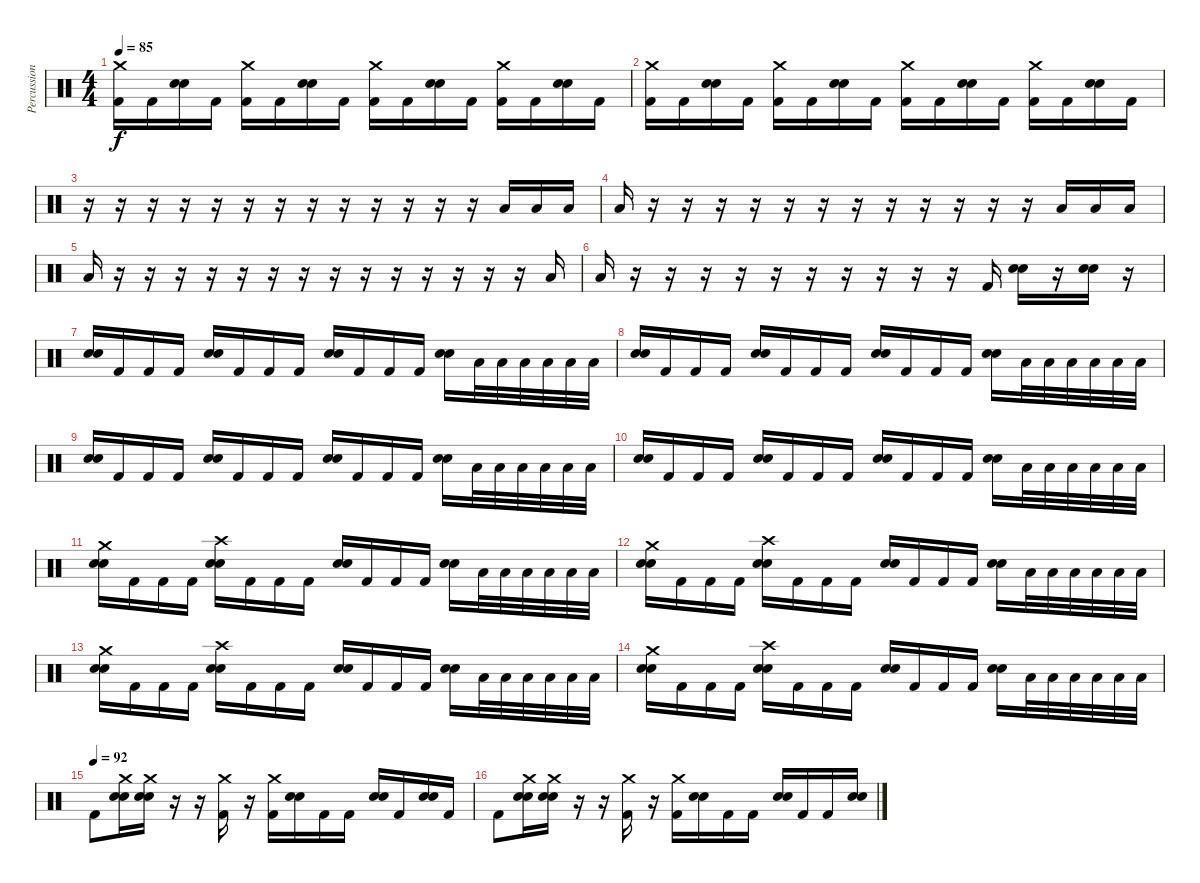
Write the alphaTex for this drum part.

\track ("Percussion" "Percussion") {instrument percussion}
\staff {score}
\articulation defaults
\ts (4 4)
\tempo 85
\clef neutral
\ks c
("Crash medium (hit)" "Kick (hit) 2").16{dy f} "Kick (hit) 2".16 ("Electric Snare (hit)" "Electric Snare (hit)").16 "Kick (hit) 2".16 ("Crash medium (hit)" "Kick (hit) 2").16 "Kick (hit) 2".16 ("Electric Snare (hit)" "Electric Snare (hit)").16 "Kick (hit) 2".16 ("Crash medium (hit)" "Kick (hit) 2").16 "Kick (hit) 2".16 ("Electric Snare (hit)" "Electric Snare (hit)").16 "Kick (hit) 2".16 ("Crash medium (hit)" "Kick (hit) 2").16 "Kick (hit) 2".16 ("Electric Snare (hit)" "Electric Snare (hit)").16 "Kick (hit) 2".16 |
("Crash medium (hit)" "Kick (hit) 2").16 "Kick (hit) 2".16 ("Electric Snare (hit)" "Electric Snare (hit)").16 "Kick (hit) 2".16 ("Crash medium (hit)" "Kick (hit) 2").16 "Kick (hit) 2".16 ("Electric Snare (hit)" "Electric Snare (hit)").16 "Kick (hit) 2".16 ("Crash medium (hit)" "Kick (hit) 2").16 "Kick (hit) 2".16 ("Electric Snare (hit)" "Electric Snare (hit)").16 "Kick (hit) 2".16 ("Crash medium (hit)" "Kick (hit) 2").16 "Kick (hit) 2".16 ("Electric Snare (hit)" "Electric Snare (hit)").16 "Kick (hit) 2".16 |
r.16 r.16 r.16 r.16 r.16 r.16 r.16 r.16 r.16 r.16 r.16 r.16 r.16 "Low Tom (hit)".16 "Low Tom (hit)".16 "Low Tom (hit)".16 |
"Low Tom (hit)".16 r.16 r.16 r.16 r.16 r.16 r.16 r.16 r.16 r.16 r.16 r.16 r.16 "Low Tom (hit)".16 "Low Tom (hit)".16 "Low Tom (hit)".16 |
"Low Tom (hit)".16 r.16 r.16 r.16 r.16 r.16 r.16 r.16 r.16 r.16 r.16 r.16 r.16 r.16 r.16 "Low Tom (hit)".16 |
"Low Tom (hit)".16 r.16 r.16 r.16 r.16 r.16 r.16 r.16 r.16 r.16 r.16 "Kick (hit) 2".16 ("Electric Snare (hit)" "Electric Snare (hit)").16 r.16 ("Electric Snare (hit)" "Electric Snare (hit)").16 r.16 |
("Electric Snare (hit)" "Electric Snare (hit)").16 "Kick (hit) 2".16 "Kick (hit) 2".16 "Kick (hit) 2".16 ("Electric Snare (hit)" "Electric Snare (hit)").16 "Kick (hit) 2".16 "Kick (hit) 2".16 "Kick (hit) 2".16 ("Electric Snare (hit)" "Electric Snare (hit)").16 "Kick (hit) 2".16 "Kick (hit) 2".16 "Kick (hit) 2".16 ("Electric Snare (hit)" "Electric Snare (hit)").16 "Low Tom (hit)".32 "Low Tom (hit)".32 "Low Tom (hit)".32 "Low Tom (hit)".32 "Low Tom (hit)".32 "Low Tom (hit)".32 |
("Electric Snare (hit)" "Electric Snare (hit)").16 "Kick (hit) 2".16 "Kick (hit) 2".16 "Kick (hit) 2".16 ("Electric Snare (hit)" "Electric Snare (hit)").16 "Kick (hit) 2".16 "Kick (hit) 2".16 "Kick (hit) 2".16 ("Electric Snare (hit)" "Electric Snare (hit)").16 "Kick (hit) 2".16 "Kick (hit) 2".16 "Kick (hit) 2".16 ("Electric Snare (hit)" "Electric Snare (hit)").16 "Low Tom (hit)".32 "Low Tom (hit)".32 "Low Tom (hit)".32 "Low Tom (hit)".32 "Low Tom (hit)".32 "Low Tom (hit)".32 |
("Electric Snare (hit)" "Electric Snare (hit)").16 "Kick (hit) 2".16 "Kick (hit) 2".16 "Kick (hit) 2".16 ("Electric Snare (hit)" "Electric Snare (hit)").16 "Kick (hit) 2".16 "Kick (hit) 2".16 "Kick (hit) 2".16 ("Electric Snare (hit)" "Electric Snare (hit)").16 "Kick (hit) 2".16 "Kick (hit) 2".16 "Kick (hit) 2".16 ("Electric Snare (hit)" "Electric Snare (hit)").16 "Low Tom (hit)".32 "Low Tom (hit)".32 "Low Tom (hit)".32 "Low Tom (hit)".32 "Low Tom (hit)".32 "Low Tom (hit)".32 |
("Electric Snare (hit)" "Electric Snare (hit)").16 "Kick (hit) 2".16 "Kick (hit) 2".16 "Kick (hit) 2".16 ("Electric Snare (hit)" "Electric Snare (hit)").16 "Kick (hit) 2".16 "Kick (hit) 2".16 "Kick (hit) 2".16 ("Electric Snare (hit)" "Electric Snare (hit)").16 "Kick (hit) 2".16 "Kick (hit) 2".16 "Kick (hit) 2".16 ("Electric Snare (hit)" "Electric Snare (hit)").16 "Low Tom (hit)".32 "Low Tom (hit)".32 "Low Tom (hit)".32 "Low Tom (hit)".32 "Low Tom (hit)".32 "Low Tom (hit)".32 |
("Crash medium (hit)" "Electric Snare (hit)" "Electric Snare (hit)").16 "Kick (hit) 2".16 "Kick (hit) 2".16 "Kick (hit) 2".16 ("Crash high (hit)" "Electric Snare (hit)" "Electric Snare (hit)").16 "Kick (hit) 2".16 "Kick (hit) 2".16 "Kick (hit) 2".16 ("Electric Snare (hit)" "Electric Snare (hit)").16 "Kick (hit) 2".16 "Kick (hit) 2".16 "Kick (hit) 2".16 ("Electric Snare (hit)" "Electric Snare (hit)").16 "Low Tom (hit)".32 "Low Tom (hit)".32 "Low Tom (hit)".32 "Low Tom (hit)".32 "Low Tom (hit)".32 "Low Tom (hit)".32 |
("Crash medium (hit)" "Electric Snare (hit)" "Electric Snare (hit)").16 "Kick (hit) 2".16 "Kick (hit) 2".16 "Kick (hit) 2".16 ("Crash high (hit)" "Electric Snare (hit)" "Electric Snare (hit)").16 "Kick (hit) 2".16 "Kick (hit) 2".16 "Kick (hit) 2".16 ("Electric Snare (hit)" "Electric Snare (hit)").16 "Kick (hit) 2".16 "Kick (hit) 2".16 "Kick (hit) 2".16 ("Electric Snare (hit)" "Electric Snare (hit)").16 "Low Tom (hit)".32 "Low Tom (hit)".32 "Low Tom (hit)".32 "Low Tom (hit)".32 "Low Tom (hit)".32 "Low Tom (hit)".32 |
("Crash medium (hit)" "Electric Snare (hit)" "Electric Snare (hit)").16 "Kick (hit) 2".16 "Kick (hit) 2".16 "Kick (hit) 2".16 ("Crash high (hit)" "Electric Snare (hit)" "Electric Snare (hit)").16 "Kick (hit) 2".16 "Kick (hit) 2".16 "Kick (hit) 2".16 ("Electric Snare (hit)" "Electric Snare (hit)").16 "Kick (hit) 2".16 "Kick (hit) 2".16 "Kick (hit) 2".16 ("Electric Snare (hit)" "Electric Snare (hit)").16 "Low Tom (hit)".32 "Low Tom (hit)".32 "Low Tom (hit)".32 "Low Tom (hit)".32 "Low Tom (hit)".32 "Low Tom (hit)".32 |
("Crash medium (hit)" "Electric Snare (hit)" "Electric Snare (hit)").16 "Kick (hit) 2".16 "Kick (hit) 2".16 "Kick (hit) 2".16 ("Crash high (hit)" "Electric Snare (hit)" "Electric Snare (hit)").16 "Kick (hit) 2".16 "Kick (hit) 2".16 "Kick (hit) 2".16 ("Electric Snare (hit)" "Electric Snare (hit)").16 "Kick (hit) 2".16 "Kick (hit) 2".16 "Kick (hit) 2".16 ("Electric Snare (hit)" "Electric Snare (hit)").16 "Low Tom (hit)".32 "Low Tom (hit)".32 "Low Tom (hit)".32 "Low Tom (hit)".32 "Low Tom (hit)".32 "Low Tom (hit)".32 |
\tempo (92)
"Kick (hit) 2".8 ("Crash medium (hit)" "Electric Snare (hit)" "Electric Snare (hit)").16 ("Crash medium (hit)" "Electric Snare (hit)" "Electric Snare (hit)").16 r.16 r.16 ("Crash medium (hit)" "Kick (hit) 2").16 r.16 ("Crash medium (hit)" "Kick (hit) 2").16 ("Electric Snare (hit)" "Electric Snare (hit)").16 "Kick (hit) 2".16 "Kick (hit) 2".16 ("Electric Snare (hit)" "Electric Snare (hit)").16 "Kick (hit) 2".16 ("Electric Snare (hit)" "Electric Snare (hit)").16 "Kick (hit) 2".16 |
"Kick (hit) 2".8 ("Crash medium (hit)" "Electric Snare (hit)" "Electric Snare (hit)").16 ("Crash medium (hit)" "Electric Snare (hit)" "Electric Snare (hit)").16 r.16 r.16 ("Crash medium (hit)" "Kick (hit) 2").16 r.16 ("Crash medium (hit)" "Kick (hit) 2").16 ("Electric Snare (hit)" "Electric Snare (hit)").16 "Kick (hit) 2".16 "Kick (hit) 2".16 ("Electric Snare (hit)" "Electric Snare (hit)").16 "Kick (hit) 2".16 "Kick (hit) 2".16 ("Electric Snare (hit)" "Electric Snare (hit)").16
